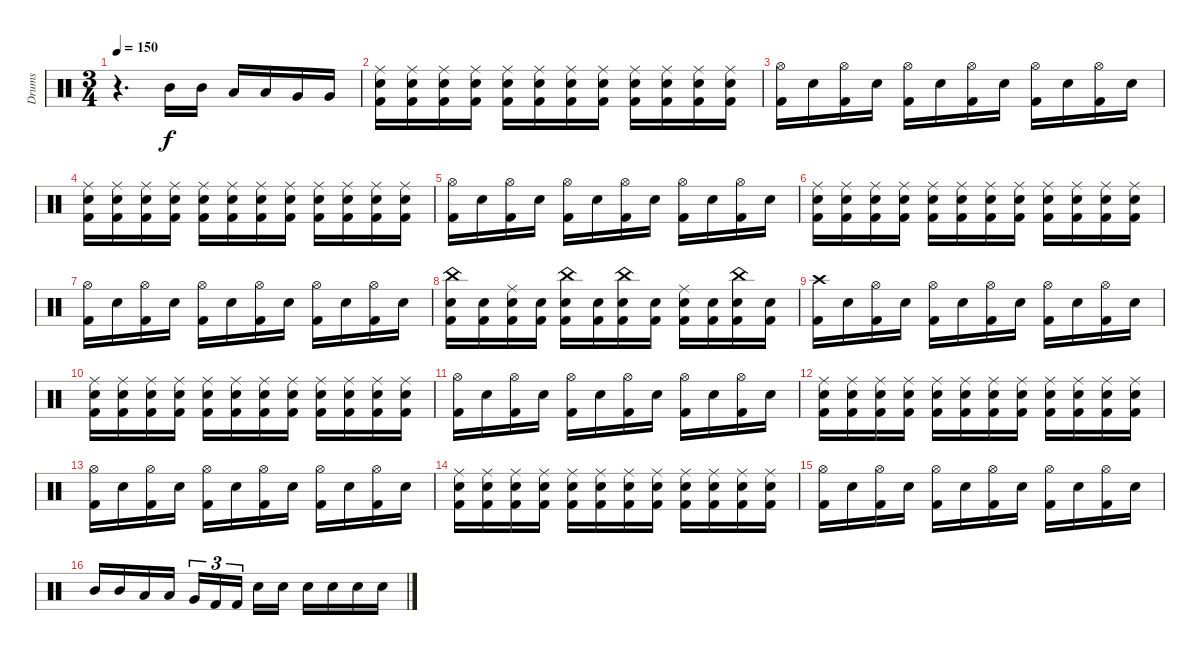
\track ("Drums" "Drums") {instrument percussion}
\staff {score}
\articulation defaults
\ts (3 4)
\tempo 150
\clef neutral
\ks c
r.4{d dy f} "Mid Tom (hit)".16 "Mid Tom (hit)".16 "Low Tom (hit)".16 "Low Tom (hit)".16 "Very Low Tom (hit)".16 "Very Low Tom (hit)".16 |
("Ride (middle)" "Electric Snare (hit)" "Kick (hit) 2").16 ("Ride (middle)" "Electric Snare (hit)" "Kick (hit) 2").16 ("Ride (middle)" "Electric Snare (hit)" "Kick (hit) 2").16 ("Ride (middle)" "Electric Snare (hit)" "Kick (hit) 2").16 ("Ride (middle)" "Electric Snare (hit)" "Kick (hit) 2").16 ("Ride (middle)" "Electric Snare (hit)" "Kick (hit) 2").16 ("Ride (middle)" "Electric Snare (hit)" "Kick (hit) 2").16 ("Ride (middle)" "Electric Snare (hit)" "Kick (hit) 2").16 ("Ride (middle)" "Electric Snare (hit)" "Kick (hit) 2").16 ("Ride (middle)" "Electric Snare (hit)" "Kick (hit) 2").16 ("Ride (middle)" "Electric Snare (hit)" "Kick (hit) 2").16 ("Ride (middle)" "Electric Snare (hit)" "Kick (hit) 2").16 |
("Hi-Hat (open)" "Kick (hit) 2").16 "Electric Snare (hit)".16 ("Hi-Hat (open)" "Kick (hit) 2").16 "Electric Snare (hit)".16 ("Hi-Hat (open)" "Kick (hit) 2").16 "Electric Snare (hit)".16 ("Hi-Hat (open)" "Kick (hit) 2").16 "Electric Snare (hit)".16 ("Hi-Hat (open)" "Kick (hit) 2").16 "Electric Snare (hit)".16 ("Hi-Hat (open)" "Kick (hit) 2").16 "Electric Snare (hit)".16 |
("Ride (middle)" "Electric Snare (hit)" "Kick (hit) 2").16 ("Ride (middle)" "Electric Snare (hit)" "Kick (hit) 2").16 ("Ride (middle)" "Electric Snare (hit)" "Kick (hit) 2").16 ("Ride (middle)" "Electric Snare (hit)" "Kick (hit) 2").16 ("Ride (middle)" "Electric Snare (hit)" "Kick (hit) 2").16 ("Ride (middle)" "Electric Snare (hit)" "Kick (hit) 2").16 ("Ride (middle)" "Electric Snare (hit)" "Kick (hit) 2").16 ("Ride (middle)" "Electric Snare (hit)" "Kick (hit) 2").16 ("Ride (middle)" "Electric Snare (hit)" "Kick (hit) 2").16 ("Ride (middle)" "Electric Snare (hit)" "Kick (hit) 2").16 ("Ride (middle)" "Electric Snare (hit)" "Kick (hit) 2").16 ("Ride (middle)" "Electric Snare (hit)" "Kick (hit) 2").16 |
("Hi-Hat (open)" "Kick (hit) 2").16 "Electric Snare (hit)".16 ("Hi-Hat (open)" "Kick (hit) 2").16 "Electric Snare (hit)".16 ("Hi-Hat (open)" "Kick (hit) 2").16 "Electric Snare (hit)".16 ("Hi-Hat (open)" "Kick (hit) 2").16 "Electric Snare (hit)".16 ("Hi-Hat (open)" "Kick (hit) 2").16 "Electric Snare (hit)".16 ("Hi-Hat (open)" "Kick (hit) 2").16 "Electric Snare (hit)".16 |
("Ride (middle)" "Electric Snare (hit)" "Kick (hit) 2").16 ("Ride (middle)" "Electric Snare (hit)" "Kick (hit) 2").16 ("Ride (middle)" "Electric Snare (hit)" "Kick (hit) 2").16 ("Ride (middle)" "Electric Snare (hit)" "Kick (hit) 2").16 ("Ride (middle)" "Electric Snare (hit)" "Kick (hit) 2").16 ("Ride (middle)" "Electric Snare (hit)" "Kick (hit) 2").16 ("Ride (middle)" "Electric Snare (hit)" "Kick (hit) 2").16 ("Ride (middle)" "Electric Snare (hit)" "Kick (hit) 2").16 ("Ride (middle)" "Electric Snare (hit)" "Kick (hit) 2").16 ("Ride (middle)" "Electric Snare (hit)" "Kick (hit) 2").16 ("Ride (middle)" "Electric Snare (hit)" "Kick (hit) 2").16 ("Ride (middle)" "Electric Snare (hit)" "Kick (hit) 2").16 |
("Hi-Hat (open)" "Kick (hit) 2").16 "Electric Snare (hit)".16 ("Hi-Hat (open)" "Kick (hit) 2").16 "Electric Snare (hit)".16 ("Hi-Hat (open)" "Kick (hit) 2").16 "Electric Snare (hit)".16 ("Hi-Hat (open)" "Kick (hit) 2").16 "Electric Snare (hit)".16 ("Hi-Hat (open)" "Kick (hit) 2").16 "Electric Snare (hit)".16 ("Hi-Hat (open)" "Kick (hit) 2").16 "Electric Snare (hit)".16 |
("China (hit)" "Electric Snare (hit)" "Kick (hit) 2").16 ("Electric Snare (hit)" "Kick (hit) 2").16 ("Ride (middle)" "Electric Snare (hit)" "Kick (hit) 2").16 ("Electric Snare (hit)" "Kick (hit) 2").16 ("China (hit)" "Electric Snare (hit)" "Kick (hit) 2").16 ("Electric Snare (hit)" "Kick (hit) 2").16 ("China (hit)" "Electric Snare (hit)" "Kick (hit) 2").16 ("Electric Snare (hit)" "Kick (hit) 2").16 ("Ride (middle)" "Electric Snare (hit)" "Kick (hit) 2").16 ("Electric Snare (hit)" "Kick (hit) 2").16 ("China (hit)" "Electric Snare (hit)" "Kick (hit) 2").16 ("Electric Snare (hit)" "Kick (hit) 2").16 |
("Crash high (hit)" "Kick (hit) 2").16 "Electric Snare (hit)".16 ("Hi-Hat (open)" "Kick (hit) 2").16 "Electric Snare (hit)".16 ("Hi-Hat (open)" "Kick (hit) 2").16 "Electric Snare (hit)".16 ("Hi-Hat (open)" "Kick (hit) 2").16 "Electric Snare (hit)".16 ("Hi-Hat (open)" "Kick (hit) 2").16 "Electric Snare (hit)".16 ("Hi-Hat (open)" "Kick (hit) 2").16 "Electric Snare (hit)".16 |
("Ride (middle)" "Electric Snare (hit)" "Kick (hit) 2").16 ("Ride (middle)" "Electric Snare (hit)" "Kick (hit) 2").16 ("Ride (middle)" "Electric Snare (hit)" "Kick (hit) 2").16 ("Ride (middle)" "Electric Snare (hit)" "Kick (hit) 2").16 ("Ride (middle)" "Electric Snare (hit)" "Kick (hit) 2").16 ("Ride (middle)" "Electric Snare (hit)" "Kick (hit) 2").16 ("Ride (middle)" "Electric Snare (hit)" "Kick (hit) 2").16 ("Ride (middle)" "Electric Snare (hit)" "Kick (hit) 2").16 ("Ride (middle)" "Electric Snare (hit)" "Kick (hit) 2").16 ("Ride (middle)" "Electric Snare (hit)" "Kick (hit) 2").16 ("Ride (middle)" "Electric Snare (hit)" "Kick (hit) 2").16 ("Ride (middle)" "Electric Snare (hit)" "Kick (hit) 2").16 |
("Hi-Hat (open)" "Kick (hit) 2").16 "Electric Snare (hit)".16 ("Hi-Hat (open)" "Kick (hit) 2").16 "Electric Snare (hit)".16 ("Hi-Hat (open)" "Kick (hit) 2").16 "Electric Snare (hit)".16 ("Hi-Hat (open)" "Kick (hit) 2").16 "Electric Snare (hit)".16 ("Hi-Hat (open)" "Kick (hit) 2").16 "Electric Snare (hit)".16 ("Hi-Hat (open)" "Kick (hit) 2").16 "Electric Snare (hit)".16 |
("Ride (middle)" "Electric Snare (hit)" "Kick (hit) 2").16 ("Ride (middle)" "Electric Snare (hit)" "Kick (hit) 2").16 ("Ride (middle)" "Electric Snare (hit)" "Kick (hit) 2").16 ("Ride (middle)" "Electric Snare (hit)" "Kick (hit) 2").16 ("Ride (middle)" "Electric Snare (hit)" "Kick (hit) 2").16 ("Ride (middle)" "Electric Snare (hit)" "Kick (hit) 2").16 ("Ride (middle)" "Electric Snare (hit)" "Kick (hit) 2").16 ("Ride (middle)" "Electric Snare (hit)" "Kick (hit) 2").16 ("Ride (middle)" "Electric Snare (hit)" "Kick (hit) 2").16 ("Ride (middle)" "Electric Snare (hit)" "Kick (hit) 2").16 ("Ride (middle)" "Electric Snare (hit)" "Kick (hit) 2").16 ("Ride (middle)" "Electric Snare (hit)" "Kick (hit) 2").16 |
("Hi-Hat (open)" "Kick (hit) 2").16 "Electric Snare (hit)".16 ("Hi-Hat (open)" "Kick (hit) 2").16 "Electric Snare (hit)".16 ("Hi-Hat (open)" "Kick (hit) 2").16 "Electric Snare (hit)".16 ("Hi-Hat (open)" "Kick (hit) 2").16 "Electric Snare (hit)".16 ("Hi-Hat (open)" "Kick (hit) 2").16 "Electric Snare (hit)".16 ("Hi-Hat (open)" "Kick (hit) 2").16 "Electric Snare (hit)".16 |
("Ride (middle)" "Electric Snare (hit)" "Kick (hit) 2").16 ("Ride (middle)" "Electric Snare (hit)" "Kick (hit) 2").16 ("Ride (middle)" "Electric Snare (hit)" "Kick (hit) 2").16 ("Ride (middle)" "Electric Snare (hit)" "Kick (hit) 2").16 ("Ride (middle)" "Electric Snare (hit)" "Kick (hit) 2").16 ("Ride (middle)" "Electric Snare (hit)" "Kick (hit) 2").16 ("Ride (middle)" "Electric Snare (hit)" "Kick (hit) 2").16 ("Ride (middle)" "Electric Snare (hit)" "Kick (hit) 2").16 ("Ride (middle)" "Electric Snare (hit)" "Kick (hit) 2").16 ("Ride (middle)" "Electric Snare (hit)" "Kick (hit) 2").16 ("Ride (middle)" "Electric Snare (hit)" "Kick (hit) 2").16 ("Ride (middle)" "Electric Snare (hit)" "Kick (hit) 2").16 |
("Hi-Hat (open)" "Kick (hit) 2").16 "Electric Snare (hit)".16 ("Hi-Hat (open)" "Kick (hit) 2").16 "Electric Snare (hit)".16 ("Hi-Hat (open)" "Kick (hit) 2").16 "Electric Snare (hit)".16 ("Hi-Hat (open)" "Kick (hit) 2").16 "Electric Snare (hit)".16 ("Hi-Hat (open)" "Kick (hit) 2").16 "Electric Snare (hit)".16 ("Hi-Hat (open)" "Kick (hit) 2").16 "Electric Snare (hit)".16 |
"Mid Tom (hit)".16 "Mid Tom (hit)".16 "Low Tom (hit)".16 "Low Tom (hit)".16 "Very Low Tom (hit)".16{tu (3 2)} "Kick (hit) 2".16{tu (3 2)} "Kick (hit) 2".16{tu (3 2)} "Electric Snare (hit)".16 "Electric Snare (hit)".16 "Electric Snare (hit)".16 "Electric Snare (hit)".16 "Electric Snare (hit)".16 "Electric Snare (hit)".16
